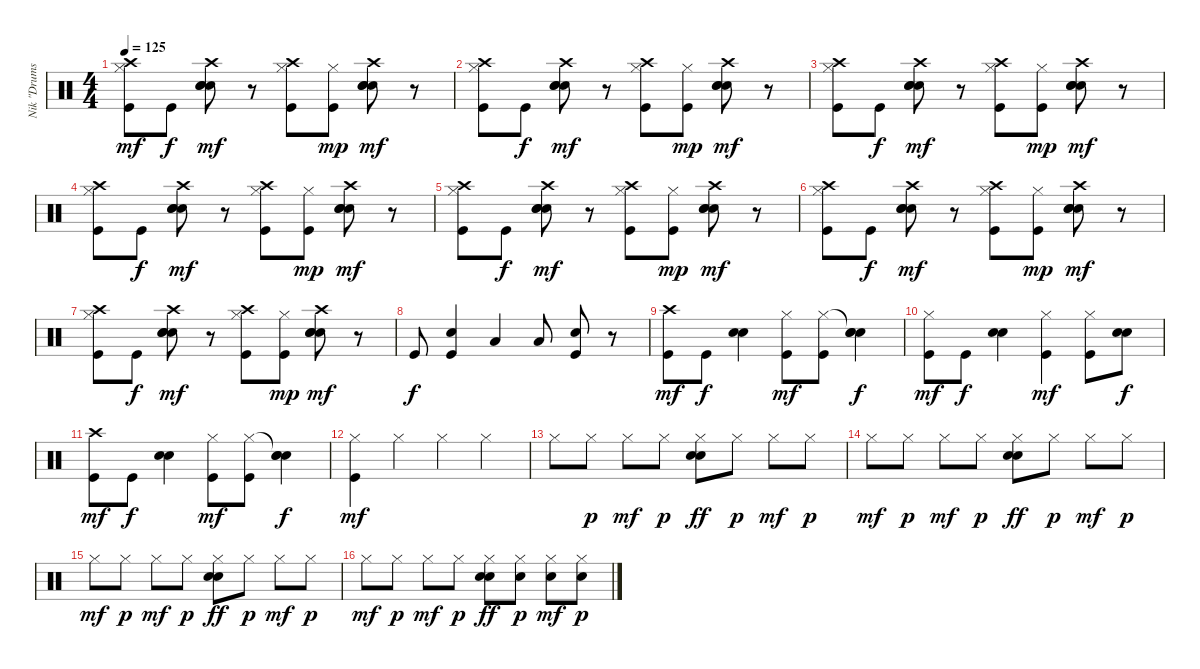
\track ("Nik \"Drums\"" "Nik \"Drums") {instrument percussion}
\staff {score}
\articulation defaults
\ts (4 4)
\tempo 125
\clef neutral
\ks c
("Hi-Hat (closed)" "Crash high (hit)" "Kick (hit)").8{dy mf} "Kick (hit)".8{dy f} ("Electric Snare (hit)" "Crash high (hit)" "Electric Snare (hit)" "Snare (hit) 2").8{dy mf} r.8 ("Hi-Hat (closed)" "Crash high (hit)" "Kick (hit)").8 ("Hi-Hat (closed)" "Kick (hit)").8{dy mp} ("Electric Snare (hit)" "Crash high (hit)" "Electric Snare (hit)" "Snare (hit) 2").8{dy mf} r.8 |
("Hi-Hat (closed)" "Crash high (hit)" "Kick (hit)").8 "Kick (hit)".8{dy f} ("Electric Snare (hit)" "Crash high (hit)" "Electric Snare (hit)" "Snare (hit) 2").8{dy mf} r.8 ("Hi-Hat (closed)" "Crash high (hit)" "Kick (hit)").8 ("Hi-Hat (closed)" "Kick (hit)").8{dy mp} ("Electric Snare (hit)" "Crash high (hit)" "Electric Snare (hit)" "Snare (hit) 2").8{dy mf} r.8 |
("Hi-Hat (closed)" "Crash high (hit)" "Kick (hit)").8 "Kick (hit)".8{dy f} ("Electric Snare (hit)" "Crash high (hit)" "Electric Snare (hit)" "Snare (hit) 2").8{dy mf} r.8 ("Hi-Hat (closed)" "Crash high (hit)" "Kick (hit)").8 ("Hi-Hat (closed)" "Kick (hit)").8{dy mp} ("Electric Snare (hit)" "Crash high (hit)" "Electric Snare (hit)" "Snare (hit) 2").8{dy mf} r.8 |
("Hi-Hat (closed)" "Crash high (hit)" "Kick (hit)").8 "Kick (hit)".8{dy f} ("Electric Snare (hit)" "Crash high (hit)" "Electric Snare (hit)" "Snare (hit) 2").8{dy mf} r.8 ("Hi-Hat (closed)" "Crash high (hit)" "Kick (hit)").8 ("Hi-Hat (closed)" "Kick (hit)").8{dy mp} ("Electric Snare (hit)" "Crash high (hit)" "Electric Snare (hit)" "Snare (hit) 2").8{dy mf} r.8 |
("Hi-Hat (closed)" "Crash high (hit)" "Kick (hit)").8 "Kick (hit)".8{dy f} ("Electric Snare (hit)" "Crash high (hit)" "Electric Snare (hit)" "Snare (hit) 2").8{dy mf} r.8 ("Hi-Hat (closed)" "Crash high (hit)" "Kick (hit)").8 ("Hi-Hat (closed)" "Kick (hit)").8{dy mp} ("Electric Snare (hit)" "Crash high (hit)" "Electric Snare (hit)" "Snare (hit) 2").8{dy mf} r.8 |
("Hi-Hat (closed)" "Crash high (hit)" "Kick (hit)").8 "Kick (hit)".8{dy f} ("Electric Snare (hit)" "Crash high (hit)" "Electric Snare (hit)" "Snare (hit) 2").8{dy mf} r.8 ("Hi-Hat (closed)" "Crash high (hit)" "Kick (hit)").8 ("Hi-Hat (closed)" "Kick (hit)").8{dy mp} ("Electric Snare (hit)" "Crash high (hit)" "Electric Snare (hit)" "Snare (hit) 2").8{dy mf} r.8 |
("Hi-Hat (closed)" "Crash high (hit)" "Kick (hit)").8 "Kick (hit)".8{dy f} ("Electric Snare (hit)" "Crash high (hit)" "Electric Snare (hit)" "Snare (hit) 2").8{dy mf} r.8 ("Hi-Hat (closed)" "Crash high (hit)" "Kick (hit)").8 ("Hi-Hat (closed)" "Kick (hit)").8{dy mp} ("Electric Snare (hit)" "Crash high (hit)" "Electric Snare (hit)" "Snare (hit) 2").8{dy mf} r.8 |
"Kick (hit)".8{dy f} ("Snare (hit) 2" "Kick (hit)").4 "Low Floor Tom (hit)".4 "Low Floor Tom (hit)".8 ("Kick (hit)" "Snare (hit) 2").8 r.8 |
("Crash high (hit)" "Kick (hit)").8{dy mf} "Kick (hit)".8{dy f} ("Electric Snare (hit)" "Electric Snare (hit)").4 ("Hi-Hat (closed)" "Kick (hit)").8{dy mf} ("Hi-Hat (closed)" "Kick (hit)").8 ("Snare (hit)"{t} "Electric Snare (hit)" "Electric Snare (hit)").4{dy f} |
("Hi-Hat (closed)" "Kick (hit)").8{dy mf} "Kick (hit)".8{dy f} ("Electric Snare (hit)" "Electric Snare (hit)").4 ("Hi-Hat (closed)" "Kick (hit)").4{dy mf} ("Hi-Hat (closed)" "Kick (hit)").8 ("Electric Snare (hit)" "Electric Snare (hit)").8{dy f} |
("Crash high (hit)" "Kick (hit)").8{dy mf} "Kick (hit)".8{dy f} ("Electric Snare (hit)" "Electric Snare (hit)").4 ("Hi-Hat (closed)" "Kick (hit)").8{dy mf} ("Hi-Hat (closed)" "Kick (hit)").8 ("Snare (hit)"{t} "Electric Snare (hit)" "Electric Snare (hit)").4{dy f} |
("Hi-Hat (closed)" "Kick (hit)").4{dy mf} "Hi-Hat (closed)".4 "Hi-Hat (closed)".4 "Hi-Hat (closed)".4 |
"Hi-Hat (closed)".8 "Hi-Hat (closed)".8{dy p} "Hi-Hat (closed)".8{dy mf} "Hi-Hat (closed)".8{dy p} ("Hi-Hat (closed)" "Snare (hit) 2" "Electric Snare (hit)").8{dy ff} "Hi-Hat (closed)".8{dy p} "Hi-Hat (closed)".8{dy mf} "Hi-Hat (closed)".8{dy p} |
"Hi-Hat (closed)".8{dy mf} "Hi-Hat (closed)".8{dy p} "Hi-Hat (closed)".8{dy mf} "Hi-Hat (closed)".8{dy p} ("Hi-Hat (closed)" "Snare (hit) 2" "Electric Snare (hit)").8{dy ff} "Hi-Hat (closed)".8{dy p} "Hi-Hat (closed)".8{dy mf} "Hi-Hat (closed)".8{dy p} |
"Hi-Hat (closed)".8{dy mf} "Hi-Hat (closed)".8{dy p} "Hi-Hat (closed)".8{dy mf} "Hi-Hat (closed)".8{dy p} ("Hi-Hat (closed)" "Snare (hit) 2" "Electric Snare (hit)").8{dy ff} "Hi-Hat (closed)".8{dy p} "Hi-Hat (closed)".8{dy mf} "Hi-Hat (closed)".8{dy p} |
"Hi-Hat (closed)".8{dy mf} "Hi-Hat (closed)".8{dy p} "Hi-Hat (closed)".8{dy mf} "Hi-Hat (closed)".8{dy p} ("Hi-Hat (closed)" "Snare (hit) 2" "Electric Snare (hit)").8{dy ff} ("Hi-Hat (closed)" "Electric Snare (hit)").8{dy p} ("Hi-Hat (closed)" "Electric Snare (hit)").8{dy mf} ("Hi-Hat (closed)" "Electric Snare (hit)").8{dy p}
